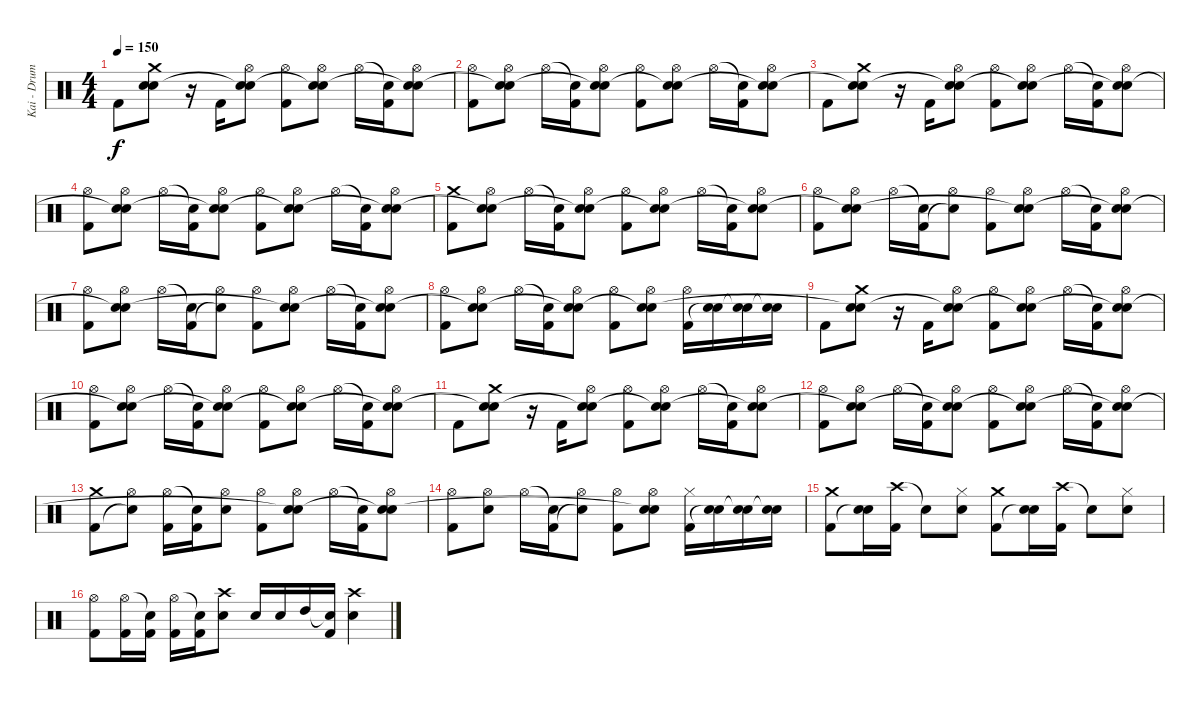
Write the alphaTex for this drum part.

\track ("Kai - Drums" "Kai - Drum") {instrument percussion}
\staff {score}
\articulation defaults
\ts (4 4)
\section ("" "")
\tempo 150
\clef neutral
\ks c "Kick (hit) 2".8{dy f}
("Crash medium (hit)" "Snare (hit) 2" "Snare (hit)"{t}).8 r.16 "Kick (hit) 2".16 ("Hi-Hat (open)" "Snare (hit) 2" "Snare (hit)"{t}).8 ("Hi-Hat (open)" "Kick (hit) 2").8 ("Hi-Hat (open)" "Snare (hit) 2" "Snare (hit)"{t}).8 "Hi-Hat (open)".16 ("Snare (hit)"{t} "Kick (hit) 2").16 ("Hi-Hat (open)" "Snare (hit) 2" "Snare (hit)"{t}).8 |
("Hi-Hat (open)" "Kick (hit) 2").8 ("Hi-Hat (open)" "Snare (hit) 2" "Snare (hit)"{t}).8 "Hi-Hat (open)".16 ("Snare (hit)"{t} "Kick (hit) 2").16 ("Hi-Hat (open)" "Snare (hit) 2" "Snare (hit)"{t}).8 ("Hi-Hat (open)" "Kick (hit) 2").8 ("Hi-Hat (open)" "Snare (hit) 2" "Snare (hit)"{t}).8 "Hi-Hat (open)".16 ("Snare (hit)"{t} "Kick (hit) 2").16 ("Hi-Hat (open)" "Snare (hit) 2" "Snare (hit)"{t}).8 |
"Kick (hit) 2".8 ("Crash medium (hit)" "Snare (hit) 2" "Snare (hit)"{t}).8 r.16 "Kick (hit) 2".16 ("Hi-Hat (open)" "Snare (hit) 2" "Snare (hit)"{t}).8 ("Hi-Hat (open)" "Kick (hit) 2").8 ("Hi-Hat (open)" "Snare (hit) 2" "Snare (hit)"{t}).8 "Hi-Hat (open)".16 ("Snare (hit)"{t} "Kick (hit) 2").16 ("Hi-Hat (open)" "Snare (hit) 2" "Snare (hit)"{t}).8 |
("Hi-Hat (open)" "Kick (hit) 2").8 ("Hi-Hat (open)" "Snare (hit) 2" "Snare (hit)"{t}).8 "Hi-Hat (open)".16 ("Snare (hit)"{t} "Kick (hit) 2").16 ("Hi-Hat (open)" "Snare (hit) 2" "Snare (hit)"{t}).8 ("Hi-Hat (open)" "Kick (hit) 2").8 ("Hi-Hat (open)" "Snare (hit) 2" "Snare (hit)"{t}).8 "Hi-Hat (open)".16 ("Snare (hit)"{t} "Kick (hit) 2").16 ("Hi-Hat (open)" "Snare (hit) 2" "Snare (hit)"{t}).8 |
("Crash medium (hit)" "Kick (hit) 2").8 ("Hi-Hat (open)" "Snare (hit) 2" "Snare (hit)"{t}).8 "Hi-Hat (open)".16 ("Snare (hit)"{t} "Kick (hit) 2").16 ("Hi-Hat (open)" "Snare (hit) 2" "Snare (hit)"{t}).8 ("Hi-Hat (open)" "Kick (hit) 2").8 ("Hi-Hat (open)" "Snare (hit) 2" "Snare (hit)"{t}).8 "Hi-Hat (open)".16 ("Snare (hit)"{t} "Kick (hit) 2").16 ("Hi-Hat (open)" "Snare (hit) 2" "Snare (hit)"{t}).8 |
("Hi-Hat (open)" "Kick (hit) 2").8 ("Hi-Hat (open)" "Snare (hit) 2" "Snare (hit)"{t}).8 "Hi-Hat (open)".16 ("Snare (hit)"{t} "Kick (hit) 2").16 ("Hi-Hat (open)" "Snare (hit)"{t}).8 ("Hi-Hat (open)" "Kick (hit) 2").8 ("Hi-Hat (open)" "Snare (hit) 2" "Snare (hit)"{t}).8 "Hi-Hat (open)".16 ("Snare (hit)"{t} "Kick (hit) 2").16 ("Hi-Hat (open)" "Snare (hit) 2" "Snare (hit)"{t}).8 |
("Hi-Hat (open)" "Kick (hit) 2").8 ("Hi-Hat (open)" "Snare (hit) 2" "Snare (hit)"{t}).8 "Hi-Hat (open)".16 ("Snare (hit)"{t} "Kick (hit) 2").16 ("Hi-Hat (open)" "Snare (hit)"{t}).8 ("Hi-Hat (open)" "Kick (hit) 2").8 ("Hi-Hat (open)" "Snare (hit) 2" "Snare (hit)"{t}).8 "Hi-Hat (open)".16 ("Snare (hit)"{t} "Kick (hit) 2").16 ("Hi-Hat (open)" "Snare (hit) 2" "Snare (hit)"{t}).8 |
("Hi-Hat (open)" "Kick (hit) 2").8 ("Hi-Hat (open)" "Snare (hit) 2" "Snare (hit)"{t}).8 "Hi-Hat (open)".16 ("Snare (hit)"{t} "Kick (hit) 2").16 ("Hi-Hat (open)" "Snare (hit) 2" "Snare (hit)"{t}).8 ("Hi-Hat (open)" "Kick (hit) 2").8 ("Hi-Hat (open)" "Snare (hit) 2" "Snare (hit)"{t}).8 ("Hi-Hat (open)" "Kick (hit) 2").16 ("Snare (hit) 2" "Snare (hit)"{t}).16 ("Snare (hit) 2" "Snare (hit)"{t}).16 ("Snare (hit) 2" "Snare (hit)"{t}).16 |
"Kick (hit) 2".8 ("Crash medium (hit)" "Snare (hit) 2" "Snare (hit)"{t}).8 r.16 "Kick (hit) 2".16 ("Hi-Hat (open)" "Snare (hit) 2" "Snare (hit)"{t}).8 ("Hi-Hat (open)" "Kick (hit) 2").8 ("Hi-Hat (open)" "Snare (hit) 2" "Snare (hit)"{t}).8 "Hi-Hat (open)".16 ("Snare (hit)"{t} "Kick (hit) 2").16 ("Hi-Hat (open)" "Snare (hit) 2" "Snare (hit)"{t}).8 |
("Hi-Hat (open)" "Kick (hit) 2").8 ("Hi-Hat (open)" "Snare (hit) 2" "Snare (hit)"{t}).8 "Hi-Hat (open)".16 ("Snare (hit)"{t} "Kick (hit) 2").16 ("Hi-Hat (open)" "Snare (hit) 2" "Snare (hit)"{t}).8 ("Hi-Hat (open)" "Kick (hit) 2").8 ("Hi-Hat (open)" "Snare (hit) 2" "Snare (hit)"{t}).8 "Hi-Hat (open)".16 ("Snare (hit)"{t} "Kick (hit) 2").16 ("Hi-Hat (open)" "Snare (hit) 2" "Snare (hit)"{t}).8 |
"Kick (hit) 2".8 ("Crash medium (hit)" "Snare (hit) 2" "Snare (hit)"{t}).8 r.16 "Kick (hit) 2".16 ("Hi-Hat (open)" "Snare (hit) 2" "Snare (hit)"{t}).8 ("Hi-Hat (open)" "Kick (hit) 2").8 ("Hi-Hat (open)" "Snare (hit) 2" "Snare (hit)"{t}).8 "Hi-Hat (open)".16 ("Snare (hit)"{t} "Kick (hit) 2").16 ("Hi-Hat (open)" "Snare (hit) 2" "Snare (hit)"{t}).8 |
("Hi-Hat (open)" "Kick (hit) 2").8 ("Hi-Hat (open)" "Snare (hit) 2" "Snare (hit)"{t}).8 "Hi-Hat (open)".16 ("Snare (hit)"{t} "Kick (hit) 2").16 ("Hi-Hat (open)" "Snare (hit) 2" "Snare (hit)"{t}).8 ("Hi-Hat (open)" "Kick (hit) 2").8 ("Hi-Hat (open)" "Snare (hit) 2" "Snare (hit)"{t}).8 "Hi-Hat (open)".16 ("Snare (hit)"{t} "Kick (hit) 2").16 ("Hi-Hat (open)" "Snare (hit) 2" "Snare (hit)"{t}).8 |
("Crash medium (hit)" "Kick (hit) 2").8 ("Hi-Hat (open)" "Snare (hit)"{t}).8 ("Hi-Hat (open)" "Kick (hit) 2").16 ("Snare (hit)"{t} "Kick (hit) 2").16 ("Hi-Hat (open)" "Snare (hit) 2").8 ("Hi-Hat (open)" "Kick (hit) 2").8 ("Hi-Hat (open)" "Snare (hit) 2" "Snare (hit)"{t}).8 "Hi-Hat (open)".16 ("Snare (hit)"{t} "Kick (hit) 2").16 ("Hi-Hat (open)" "Snare (hit) 2" "Snare (hit)"{t}).8 |
("Hi-Hat (open)" "Kick (hit) 2").8 ("Hi-Hat (open)" "Snare (hit) 2").8 "Hi-Hat (open)".16 ("Snare (hit)"{t} "Kick (hit) 2").16 ("Hi-Hat (open)" "Snare (hit)"{t}).8 ("Hi-Hat (open)" "Kick (hit) 2").8 ("Hi-Hat (open)" "Snare (hit) 2" "Snare (hit)"{t}).8 ("Hi-Hat (closed)" "Kick (hit) 2").16 ("Snare (hit) 2" "Snare (hit)"{t}).16 ("Snare (hit) 2" "Snare (hit)"{t}).16 ("Snare (hit) 2" "Snare (hit)"{t}).16 |
("Crash medium (hit)" "Kick (hit) 2").8 ("Snare (hit) 2" "Snare (hit)"{t}).16 ("Crash high (hit)" "Kick (hit) 2").16 "Snare (hit)"{t}.8 ("Hi-Hat (closed)" "Snare (hit) 2").8 ("Crash medium (hit)" "Kick (hit) 2").8 ("Snare (hit) 2" "Snare (hit)"{t}).16 ("Crash high (hit)" "Kick (hit) 2").16 "Snare (hit)"{t}.8 ("Hi-Hat (closed)" "Snare (hit) 2").8 |
("Hi-Hat (open)" "Kick (hit) 2").8 ("Hi-Hat (open)" "Kick (hit) 2").16 ("Snare (hit)"{t} "Kick (hit) 2").16 ("Hi-Hat (open)" "Kick (hit) 2").16 ("Snare (hit)"{t} "Kick (hit) 2").16 ("Crash high (hit)" "Snare (hit) 2").8 "Snare (hit) 2".16 "Snare (hit) 2".16 "High Tom (hit)".16 ("Snare (hit)"{t} "Kick (hit) 2").16 ("Crash high (hit)" "Snare (hit) 2").4
